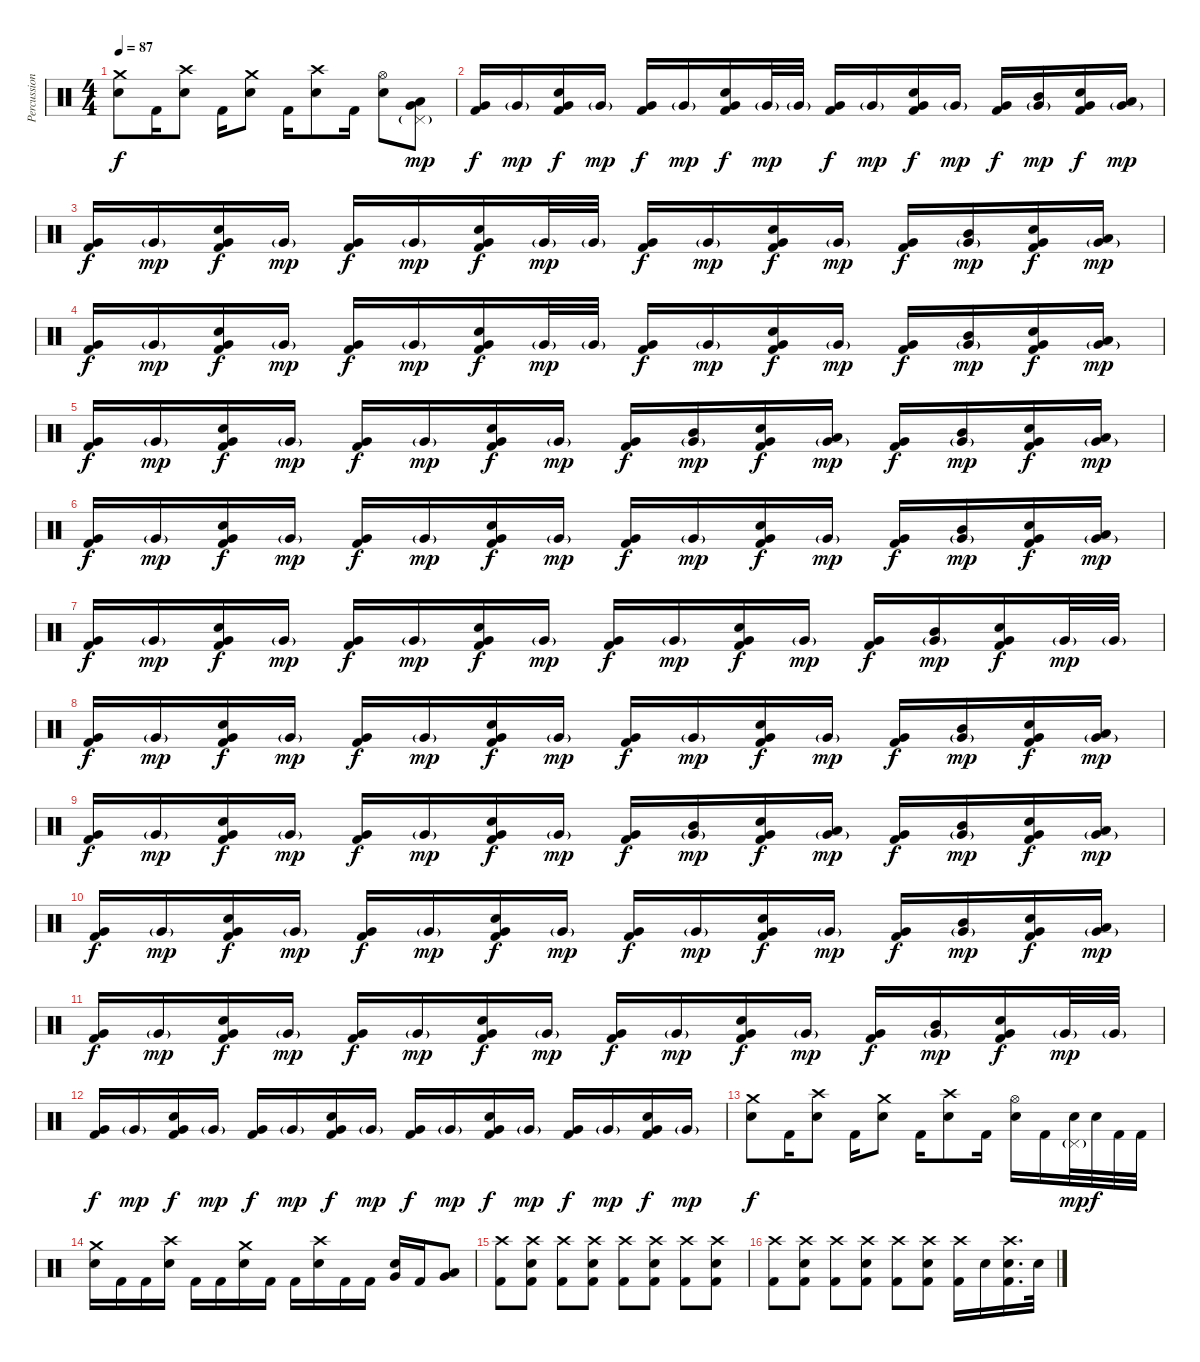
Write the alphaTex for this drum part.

\track ("Percussion" "Percussion") {instrument percussion}
\staff {score}
\articulation defaults
\ts (4 4)
\tempo 87
\clef neutral
\ks c
("Crash medium (hit)" "Electric Snare (hit)").8{dy f} "Kick (hit) 2".16 ("Crash high (hit)" "Electric Snare (hit)").8 "Kick (hit) 2".16 ("Crash medium (hit)" "Electric Snare (hit)").8 "Kick (hit) 2".16 ("Crash high (hit)" "Electric Snare (hit)").8 "Kick (hit) 2".16 ("Hi-Hat (open)" "Electric Snare (hit)").8 ("Low Tom (hit)" "Very Low Tom (hit)" "Pedal Hi-Hat (hit)"{g}).8{dy mp} |
("Very Low Tom (hit)" "Kick (hit) 2").16{dy f} "Very Low Tom (hit)"{g}.16{dy mp} ("Electric Snare (hit)" "Very Low Tom (hit)" "Kick (hit) 2").16{dy f} "Very Low Tom (hit)"{g}.16{dy mp} ("Very Low Tom (hit)" "Kick (hit) 2").16{dy f} "Very Low Tom (hit)"{g}.16{dy mp} ("Electric Snare (hit)" "Very Low Tom (hit)" "Kick (hit) 2").16{dy f} "Very Low Tom (hit)"{g}.32{dy mp} "Very Low Tom (hit)"{g}.32 ("Very Low Tom (hit)" "Kick (hit) 2").16{dy f} "Very Low Tom (hit)"{g}.16{dy mp} ("Electric Snare (hit)" "Very Low Tom (hit)" "Kick (hit) 2").16{dy f} "Very Low Tom (hit)"{g}.16{dy mp} ("Very Low Tom (hit)" "Kick (hit) 2").16{dy f} ("Mid Tom (hit)" "Very Low Tom (hit)"{g}).16{dy mp} ("Electric Snare (hit)" "Very Low Tom (hit)" "Kick (hit) 2").16{dy f} ("Low Tom (hit)" "Very Low Tom (hit)"{g}).16{dy mp} |
("Very Low Tom (hit)" "Kick (hit) 2").16{dy f} "Very Low Tom (hit)"{g}.16{dy mp} ("Electric Snare (hit)" "Very Low Tom (hit)" "Kick (hit) 2").16{dy f} "Very Low Tom (hit)"{g}.16{dy mp} ("Very Low Tom (hit)" "Kick (hit) 2").16{dy f} "Very Low Tom (hit)"{g}.16{dy mp} ("Electric Snare (hit)" "Very Low Tom (hit)" "Kick (hit) 2").16{dy f} "Very Low Tom (hit)"{g}.32{dy mp} "Very Low Tom (hit)"{g}.32 ("Very Low Tom (hit)" "Kick (hit) 2").16{dy f} "Very Low Tom (hit)"{g}.16{dy mp} ("Electric Snare (hit)" "Very Low Tom (hit)" "Kick (hit) 2").16{dy f} "Very Low Tom (hit)"{g}.16{dy mp} ("Very Low Tom (hit)" "Kick (hit) 2").16{dy f} ("Mid Tom (hit)" "Very Low Tom (hit)"{g}).16{dy mp} ("Electric Snare (hit)" "Very Low Tom (hit)" "Kick (hit) 2").16{dy f} ("Low Tom (hit)" "Very Low Tom (hit)"{g}).16{dy mp} |
("Very Low Tom (hit)" "Kick (hit) 2").16{dy f} "Very Low Tom (hit)"{g}.16{dy mp} ("Electric Snare (hit)" "Very Low Tom (hit)" "Kick (hit) 2").16{dy f} "Very Low Tom (hit)"{g}.16{dy mp} ("Very Low Tom (hit)" "Kick (hit) 2").16{dy f} "Very Low Tom (hit)"{g}.16{dy mp} ("Electric Snare (hit)" "Very Low Tom (hit)" "Kick (hit) 2").16{dy f} "Very Low Tom (hit)"{g}.32{dy mp} "Very Low Tom (hit)"{g}.32 ("Very Low Tom (hit)" "Kick (hit) 2").16{dy f} "Very Low Tom (hit)"{g}.16{dy mp} ("Electric Snare (hit)" "Very Low Tom (hit)" "Kick (hit) 2").16{dy f} "Very Low Tom (hit)"{g}.16{dy mp} ("Very Low Tom (hit)" "Kick (hit) 2").16{dy f} ("Mid Tom (hit)" "Very Low Tom (hit)"{g}).16{dy mp} ("Electric Snare (hit)" "Very Low Tom (hit)" "Kick (hit) 2").16{dy f} ("Low Tom (hit)" "Very Low Tom (hit)"{g}).16{dy mp} |
("Very Low Tom (hit)" "Kick (hit) 2").16{dy f} "Very Low Tom (hit)"{g}.16{dy mp} ("Electric Snare (hit)" "Very Low Tom (hit)" "Kick (hit) 2").16{dy f} "Very Low Tom (hit)"{g}.16{dy mp} ("Very Low Tom (hit)" "Kick (hit) 2").16{dy f} "Very Low Tom (hit)"{g}.16{dy mp} ("Electric Snare (hit)" "Very Low Tom (hit)" "Kick (hit) 2").16{dy f} "Very Low Tom (hit)"{g}.16{dy mp} ("Very Low Tom (hit)" "Kick (hit) 2").16{dy f} ("Mid Tom (hit)" "Very Low Tom (hit)"{g}).16{dy mp} ("Electric Snare (hit)" "Very Low Tom (hit)" "Kick (hit) 2").16{dy f} ("Low Tom (hit)" "Very Low Tom (hit)"{g}).16{dy mp} ("Very Low Tom (hit)" "Kick (hit) 2").16{dy f} ("Mid Tom (hit)" "Very Low Tom (hit)"{g}).16{dy mp} ("Electric Snare (hit)" "Very Low Tom (hit)" "Kick (hit) 2").16{dy f} ("Low Tom (hit)" "Very Low Tom (hit)"{g}).16{dy mp} |
("Very Low Tom (hit)" "Kick (hit) 2").16{dy f} "Very Low Tom (hit)"{g}.16{dy mp} ("Electric Snare (hit)" "Very Low Tom (hit)" "Kick (hit) 2").16{dy f} "Very Low Tom (hit)"{g}.16{dy mp} ("Very Low Tom (hit)" "Kick (hit) 2").16{dy f} "Very Low Tom (hit)"{g}.16{dy mp} ("Electric Snare (hit)" "Very Low Tom (hit)" "Kick (hit) 2").16{dy f} "Very Low Tom (hit)"{g}.16{dy mp} ("Very Low Tom (hit)" "Kick (hit) 2").16{dy f} "Very Low Tom (hit)"{g}.16{dy mp} ("Electric Snare (hit)" "Very Low Tom (hit)" "Kick (hit) 2").16{dy f} "Very Low Tom (hit)"{g}.16{dy mp} ("Very Low Tom (hit)" "Kick (hit) 2").16{dy f} ("Mid Tom (hit)" "Very Low Tom (hit)"{g}).16{dy mp} ("Electric Snare (hit)" "Very Low Tom (hit)" "Kick (hit) 2").16{dy f} ("Low Tom (hit)" "Very Low Tom (hit)"{g}).16{dy mp} |
("Very Low Tom (hit)" "Kick (hit) 2").16{dy f} "Very Low Tom (hit)"{g}.16{dy mp} ("Electric Snare (hit)" "Very Low Tom (hit)" "Kick (hit) 2").16{dy f} "Very Low Tom (hit)"{g}.16{dy mp} ("Very Low Tom (hit)" "Kick (hit) 2").16{dy f} "Very Low Tom (hit)"{g}.16{dy mp} ("Electric Snare (hit)" "Very Low Tom (hit)" "Kick (hit) 2").16{dy f} "Very Low Tom (hit)"{g}.16{dy mp} ("Very Low Tom (hit)" "Kick (hit) 2").16{dy f} "Very Low Tom (hit)"{g}.16{dy mp} ("Electric Snare (hit)" "Very Low Tom (hit)" "Kick (hit) 2").16{dy f} "Very Low Tom (hit)"{g}.16{dy mp} ("Very Low Tom (hit)" "Kick (hit) 2").16{dy f} ("Mid Tom (hit)" "Very Low Tom (hit)"{g}).16{dy mp} ("Electric Snare (hit)" "Very Low Tom (hit)" "Kick (hit) 2").16{dy f} "Very Low Tom (hit)"{g}.32{dy mp} "Very Low Tom (hit)"{g}.32 |
("Very Low Tom (hit)" "Kick (hit) 2").16{dy f} "Very Low Tom (hit)"{g}.16{dy mp} ("Electric Snare (hit)" "Very Low Tom (hit)" "Kick (hit) 2").16{dy f} "Very Low Tom (hit)"{g}.16{dy mp} ("Very Low Tom (hit)" "Kick (hit) 2").16{dy f} "Very Low Tom (hit)"{g}.16{dy mp} ("Electric Snare (hit)" "Very Low Tom (hit)" "Kick (hit) 2").16{dy f} "Very Low Tom (hit)"{g}.16{dy mp} ("Very Low Tom (hit)" "Kick (hit) 2").16{dy f} "Very Low Tom (hit)"{g}.16{dy mp} ("Electric Snare (hit)" "Very Low Tom (hit)" "Kick (hit) 2").16{dy f} "Very Low Tom (hit)"{g}.16{dy mp} ("Very Low Tom (hit)" "Kick (hit) 2").16{dy f} ("Mid Tom (hit)" "Very Low Tom (hit)"{g}).16{dy mp} ("Electric Snare (hit)" "Very Low Tom (hit)" "Kick (hit) 2").16{dy f} ("Low Tom (hit)" "Very Low Tom (hit)"{g}).16{dy mp} |
("Very Low Tom (hit)" "Kick (hit) 2").16{dy f} "Very Low Tom (hit)"{g}.16{dy mp} ("Electric Snare (hit)" "Very Low Tom (hit)" "Kick (hit) 2").16{dy f} "Very Low Tom (hit)"{g}.16{dy mp} ("Very Low Tom (hit)" "Kick (hit) 2").16{dy f} "Very Low Tom (hit)"{g}.16{dy mp} ("Electric Snare (hit)" "Very Low Tom (hit)" "Kick (hit) 2").16{dy f} "Very Low Tom (hit)"{g}.16{dy mp} ("Very Low Tom (hit)" "Kick (hit) 2").16{dy f} ("Mid Tom (hit)" "Very Low Tom (hit)"{g}).16{dy mp} ("Electric Snare (hit)" "Very Low Tom (hit)" "Kick (hit) 2").16{dy f} ("Low Tom (hit)" "Very Low Tom (hit)"{g}).16{dy mp} ("Very Low Tom (hit)" "Kick (hit) 2").16{dy f} ("Mid Tom (hit)" "Very Low Tom (hit)"{g}).16{dy mp} ("Electric Snare (hit)" "Very Low Tom (hit)" "Kick (hit) 2").16{dy f} ("Low Tom (hit)" "Very Low Tom (hit)"{g}).16{dy mp} |
("Very Low Tom (hit)" "Kick (hit) 2").16{dy f} "Very Low Tom (hit)"{g}.16{dy mp} ("Electric Snare (hit)" "Very Low Tom (hit)" "Kick (hit) 2").16{dy f} "Very Low Tom (hit)"{g}.16{dy mp} ("Very Low Tom (hit)" "Kick (hit) 2").16{dy f} "Very Low Tom (hit)"{g}.16{dy mp} ("Electric Snare (hit)" "Very Low Tom (hit)" "Kick (hit) 2").16{dy f} "Very Low Tom (hit)"{g}.16{dy mp} ("Very Low Tom (hit)" "Kick (hit) 2").16{dy f} "Very Low Tom (hit)"{g}.16{dy mp} ("Electric Snare (hit)" "Very Low Tom (hit)" "Kick (hit) 2").16{dy f} "Very Low Tom (hit)"{g}.16{dy mp} ("Very Low Tom (hit)" "Kick (hit) 2").16{dy f} ("Mid Tom (hit)" "Very Low Tom (hit)"{g}).16{dy mp} ("Electric Snare (hit)" "Very Low Tom (hit)" "Kick (hit) 2").16{dy f} ("Low Tom (hit)" "Very Low Tom (hit)"{g}).16{dy mp} |
("Very Low Tom (hit)" "Kick (hit) 2").16{dy f} "Very Low Tom (hit)"{g}.16{dy mp} ("Electric Snare (hit)" "Very Low Tom (hit)" "Kick (hit) 2").16{dy f} "Very Low Tom (hit)"{g}.16{dy mp} ("Very Low Tom (hit)" "Kick (hit) 2").16{dy f} "Very Low Tom (hit)"{g}.16{dy mp} ("Electric Snare (hit)" "Very Low Tom (hit)" "Kick (hit) 2").16{dy f} "Very Low Tom (hit)"{g}.16{dy mp} ("Very Low Tom (hit)" "Kick (hit) 2").16{dy f} "Very Low Tom (hit)"{g}.16{dy mp} ("Electric Snare (hit)" "Very Low Tom (hit)" "Kick (hit) 2").16{dy f} "Very Low Tom (hit)"{g}.16{dy mp} ("Very Low Tom (hit)" "Kick (hit) 2").16{dy f} ("Mid Tom (hit)" "Very Low Tom (hit)"{g}).16{dy mp} ("Electric Snare (hit)" "Very Low Tom (hit)" "Kick (hit) 2").16{dy f} "Very Low Tom (hit)"{g}.32{dy mp} "Very Low Tom (hit)"{g}.32 |
("Very Low Tom (hit)" "Kick (hit) 2").16{dy f} "Very Low Tom (hit)"{g}.16{dy mp} ("Electric Snare (hit)" "Very Low Tom (hit)" "Kick (hit) 2").16{dy f} "Very Low Tom (hit)"{g}.16{dy mp} ("Very Low Tom (hit)" "Kick (hit) 2").16{dy f} "Very Low Tom (hit)"{g}.16{dy mp} ("Electric Snare (hit)" "Very Low Tom (hit)" "Kick (hit) 2").16{dy f} "Very Low Tom (hit)"{g}.16{dy mp} ("Very Low Tom (hit)" "Kick (hit) 2").16{dy f} "Very Low Tom (hit)"{g}.16{dy mp} ("Electric Snare (hit)" "Very Low Tom (hit)" "Kick (hit) 2").16{dy f} "Very Low Tom (hit)"{g}.16{dy mp} ("Very Low Tom (hit)" "Kick (hit) 2").16{dy f} "Very Low Tom (hit)"{g}.16{dy mp} ("Electric Snare (hit)" "Very Low Tom (hit)" "Kick (hit) 2").16{dy f} "Very Low Tom (hit)"{g}.16{dy mp} |
("Crash medium (hit)" "Electric Snare (hit)").8{dy f} "Kick (hit) 2".16 ("Crash high (hit)" "Electric Snare (hit)").8 "Kick (hit) 2".16 ("Crash medium (hit)" "Electric Snare (hit)").8 "Kick (hit) 2".16 ("Crash high (hit)" "Electric Snare (hit)").8 "Kick (hit) 2".16 ("Hi-Hat (open)" "Electric Snare (hit)").16 "Kick (hit) 2".16 ("Electric Snare (hit)" "Pedal Hi-Hat (hit)"{g}).32{dy mp} "Electric Snare (hit)".32{dy f} "Kick (hit) 2".32 "Kick (hit) 2".32 |
("Crash medium (hit)" "Electric Snare (hit)").16 "Kick (hit) 2".16 "Kick (hit) 2".16 ("Crash high (hit)" "Electric Snare (hit)").16 "Kick (hit) 2".16 "Kick (hit) 2".16 ("Crash medium (hit)" "Electric Snare (hit)").16 "Kick (hit) 2".16 "Kick (hit) 2".16 ("Crash high (hit)" "Electric Snare (hit)").16 "Kick (hit) 2".16 "Kick (hit) 2".16 ("Electric Snare (hit)" "Very Low Tom (hit)").16 "Kick (hit) 2".16 ("Low Tom (hit)" "Very Low Tom (hit)").8 |
("Crash high (hit)" "Kick (hit) 2").8 ("Crash high (hit)" "Electric Snare (hit)" "Kick (hit) 2").8 ("Crash high (hit)" "Kick (hit) 2").8 ("Crash high (hit)" "Electric Snare (hit)" "Kick (hit) 2").8 ("Crash high (hit)" "Kick (hit) 2").8 ("Crash high (hit)" "Electric Snare (hit)" "Kick (hit) 2").8 ("Crash high (hit)" "Kick (hit) 2").8 ("Crash high (hit)" "Electric Snare (hit)" "Kick (hit) 2").8 |
("Crash high (hit)" "Kick (hit) 2").8 ("Crash high (hit)" "Electric Snare (hit)" "Kick (hit) 2").8 ("Crash high (hit)" "Kick (hit) 2").8 ("Crash high (hit)" "Electric Snare (hit)" "Kick (hit) 2").8 ("Crash high (hit)" "Kick (hit) 2").8 ("Crash high (hit)" "Electric Snare (hit)" "Kick (hit) 2").8 ("Crash high (hit)" "Kick (hit) 2").16 "Electric Snare (hit)".16 ("Crash high (hit)" "Electric Snare (hit)" "Kick (hit) 2").16{d} "Electric Snare (hit)".32
